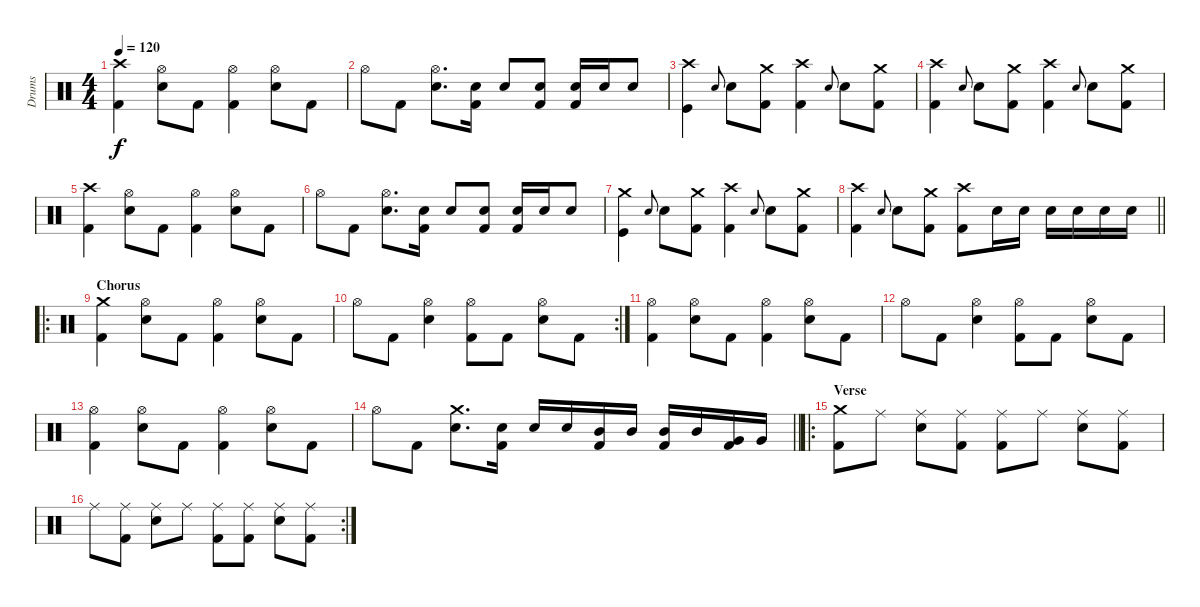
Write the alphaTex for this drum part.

\track ("Drums" "Drums") {instrument percussion}
\staff {score}
\articulation defaults
\ts (4 4)
\tempo 120
\clef neutral
\ks c
("Crash high (hit)" "Kick (hit) 2").4{dy f} ("Hi-Hat (open)" "Snare (hit) 2").8 "Kick (hit) 2".8 ("Hi-Hat (open)" "Kick (hit) 2").4 ("Hi-Hat (open)" "Snare (hit) 2").8 "Kick (hit) 2".8 |
"Hi-Hat (open)".8 "Kick (hit) 2".8 ("Hi-Hat (open)" "Snare (hit) 2").8{d} ("Snare (hit) 2" "Kick (hit) 2").16 "Snare (hit) 2".8 ("Snare (hit) 2" "Kick (hit) 2").8 ("Snare (hit) 2" "Kick (hit) 2").16 "Snare (hit) 2".16 "Snare (hit) 2".8 |
("Crash high (hit)" "Kick (hit)").4 "Snare (hit) 2".8{gr onbeat} "Snare (hit) 2".8 ("Crash medium (hit)" "Kick (hit) 2").8 ("Crash high (hit)" "Kick (hit) 2").4 "Snare (hit) 2".8{gr onbeat} "Snare (hit) 2".8 ("Crash medium (hit)" "Kick (hit) 2").8 |
("Crash high (hit)" "Kick (hit) 2").4 "Snare (hit) 2".8{gr onbeat} "Snare (hit) 2".8 ("Crash medium (hit)" "Kick (hit) 2").8 ("Crash high (hit)" "Kick (hit) 2").4 "Snare (hit) 2".8{gr onbeat} "Snare (hit) 2".8 ("Crash medium (hit)" "Kick (hit) 2").8 |
("Crash high (hit)" "Kick (hit) 2").4 ("Hi-Hat (open)" "Snare (hit) 2").8 "Kick (hit) 2".8 ("Hi-Hat (open)" "Kick (hit) 2").4 ("Hi-Hat (open)" "Snare (hit) 2").8 "Kick (hit) 2".8 |
"Hi-Hat (open)".8 "Kick (hit) 2".8 ("Hi-Hat (open)" "Snare (hit) 2").8{d} ("Snare (hit) 2" "Kick (hit) 2").16 "Snare (hit) 2".8 ("Snare (hit) 2" "Kick (hit) 2").8 ("Snare (hit) 2" "Kick (hit) 2").16 "Snare (hit) 2".16 "Snare (hit) 2".8 |
("Crash medium (hit)" "Kick (hit)").4 "Snare (hit) 2".8{gr onbeat} "Snare (hit) 2".8 ("Crash medium (hit)" "Kick (hit) 2").8 ("Crash high (hit)" "Kick (hit) 2").4 "Snare (hit) 2".8{gr onbeat} "Snare (hit) 2".8 ("Crash medium (hit)" "Kick (hit) 2").8 |
\barLineRight lightlight
("Crash high (hit)" "Kick (hit) 2").4 "Snare (hit) 2".8{gr onbeat} "Snare (hit) 2".8 ("Crash medium (hit)" "Kick (hit) 2").8 ("Crash high (hit)" "Kick (hit) 2").8 "Snare (hit) 2".16 "Snare (hit) 2".16 "Snare (hit) 2".16 "Snare (hit) 2".16 "Snare (hit) 2".16 "Snare (hit) 2".16 |
\ro
\section ("" "Chorus")
("Crash medium (hit)" "Kick (hit) 2").4 ("Hi-Hat (open)" "Snare (hit) 2").8 "Kick (hit) 2".8 ("Hi-Hat (open)" "Kick (hit) 2").4 ("Hi-Hat (open)" "Snare (hit) 2").8 "Kick (hit) 2".8 |
\rc 2 "Hi-Hat (open)".8 "Kick (hit) 2".8
("Hi-Hat (open)" "Snare (hit) 2").4 ("Hi-Hat (open)" "Kick (hit) 2").8 "Kick (hit) 2".8 ("Hi-Hat (open)" "Snare (hit) 2").8 "Kick (hit) 2".8 |
("Hi-Hat (open)" "Kick (hit) 2").4 ("Hi-Hat (open)" "Snare (hit) 2").8 "Kick (hit) 2".8 ("Hi-Hat (open)" "Kick (hit) 2").4 ("Hi-Hat (open)" "Snare (hit) 2").8 "Kick (hit) 2".8 |
"Hi-Hat (open)".8 "Kick (hit) 2".8 ("Hi-Hat (open)" "Snare (hit) 2").4 ("Hi-Hat (open)" "Kick (hit) 2").8 "Kick (hit) 2".8 ("Hi-Hat (open)" "Snare (hit) 2").8 "Kick (hit) 2".8 |
("Hi-Hat (open)" "Kick (hit) 2").4 ("Hi-Hat (open)" "Snare (hit) 2").8 "Kick (hit) 2".8 ("Hi-Hat (open)" "Kick (hit) 2").4 ("Hi-Hat (open)" "Snare (hit) 2").8 "Kick (hit) 2".8 |
\barLineRight lightlight "Hi-Hat (open)".8 "Kick (hit) 2".8
("Crash medium (hit)" "Snare (hit) 2").8{d} ("Snare (hit) 2" "Kick (hit) 2").16 "Snare (hit) 2".16 "Snare (hit) 2".16 ("Mid Tom (hit)" "Kick (hit) 2").16 "Mid Tom (hit)".16 ("Mid Tom (hit)" "Kick (hit) 2").16 "Mid Tom (hit)".16 ("Very Low Tom (hit)" "Kick (hit) 2").16 "Very Low Tom (hit)".16 |
\ro
\section ("" "Verse")
("Crash medium (hit)" "Kick (hit) 2").8 "Ride (middle)".8 ("Ride (middle)" "Snare (hit) 2").8 ("Ride (middle)" "Kick (hit) 2").8 ("Ride (middle)" "Kick (hit) 2").8 "Ride (middle)".8 ("Ride (middle)" "Snare (hit) 2").8 ("Ride (middle)" "Kick (hit) 2").8 |
\rc 2 "Ride (middle)".8
("Ride (middle)" "Kick (hit) 2").8 ("Ride (middle)" "Snare (hit) 2").8 "Ride (middle)".8 ("Ride (middle)" "Kick (hit) 2").8 ("Ride (middle)" "Kick (hit) 2").8 ("Ride (middle)" "Snare (hit) 2").8 ("Ride (middle)" "Kick (hit) 2").8
